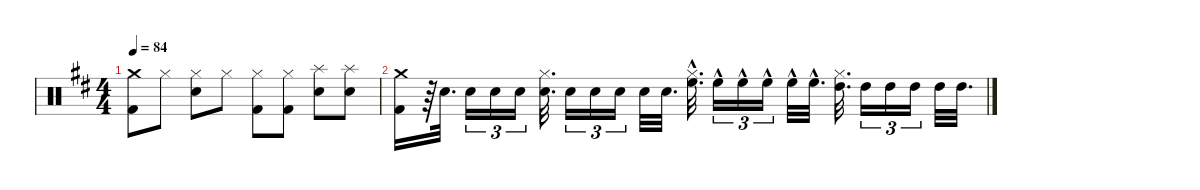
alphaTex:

\hideDynamics
\bracketExtendMode nobrackets
\singleTrackTrackNamePolicy hidden
\multiTrackTrackNamePolicy hidden
\otherSystemsTrackNameOrientation horizontal
\track ("Drumkit" "Drums") {instrument percussion}
\staff {score}
\articulation defaults
\ts (4 4)
\tempo 84
\clef neutral
\ks d
("Kick (hit) 2"{acc forcenatural} "Crash medium (hit)"{acc forcenatural}).8{dy f beam Down} "Hi-Hat (closed)"{acc forcenatural}.8{beam Down} ("Snare (hit) 2"{acc forcenatural} "Hi-Hat (closed)"{acc forcenatural}).8{beam Down} "Hi-Hat (closed)"{acc forcenatural}.8{beam Down} ("Kick (hit) 2"{acc forcenatural} "Hi-Hat (closed)"{acc forcenatural}).8{beam Down} ("Kick (hit) 2"{acc forcenatural} "Hi-Hat (closed)"{acc forcenatural}).8{beam Down} ("Snare (hit) 2"{acc forcenatural} "Splash (hit)"{acc forcenatural}).8{beam Down} ("Snare (hit) 2"{acc forcenatural} "Splash (hit)"{acc forcenatural}).8{beam Down} |
("Kick (hit) 2"{acc forcenatural} "Crash medium (hit)"{acc forcenatural}).16{beam Down} r.64{beam Down} "Snare (hit) 2"{acc forcenatural}.32{d beam Down} "Snare (hit) 2"{acc forcenatural}.16{tu (3 2) beam Down} "Snare (hit) 2"{acc forcenatural}.16{tu (3 2) beam Down} "Snare (hit) 2"{acc forcenatural}.16{tu (3 2) beam Down} ("Snare (hit) 2"{acc forcenatural} "Hi-Hat (closed)"{acc forcenatural}).32{d beam Down} "Snare (hit) 2"{acc forcenatural}.16{tu (3 2) beam Down} "Snare (hit) 2"{acc forcenatural}.16{tu (3 2) beam Down} "Snare (hit) 2"{acc forcenatural}.16{tu (3 2) beam Down} "Snare (hit) 2"{acc forcenatural}.32{beam Down} "Snare (hit) 2"{acc forcenatural}.32{d beam Down} ("High Floor Tom (hit)"{hac acc forcenatural} "Hi-Hat (closed)"{hac acc forcenatural}).32{d beam Down} "High Floor Tom (hit)"{hac acc forcenatural}.16{tu (3 2) beam Down} "High Floor Tom (hit)"{hac acc forcenatural}.16{tu (3 2) beam Down} "High Floor Tom (hit)"{hac acc forcenatural}.16{tu (3 2) beam Down} "High Floor Tom (hit)"{hac acc forcenatural}.32{beam Down} "High Floor Tom (hit)"{hac acc forcenatural}.32{d beam Down} ("Hi-Hat (closed)"{acc forcenatural} "High Tom (hit)"{acc forcenatural}).32{d beam Down} "High Tom (hit)"{acc forcenatural}.16{tu (3 2) beam Down} "High Tom (hit)"{acc forcenatural}.16{tu (3 2) beam Down} "High Tom (hit)"{acc forcenatural}.16{tu (3 2) beam Down} "High Tom (hit)"{acc forcenatural}.32{beam Down} "High Tom (hit)"{acc forcenatural}.32{d beam Down}
